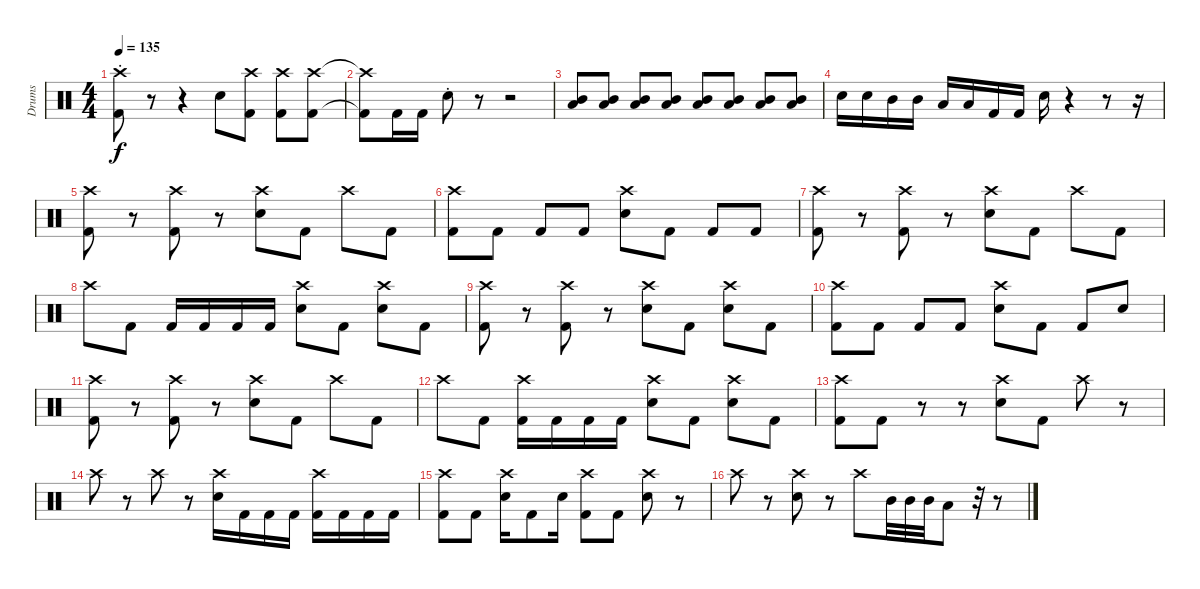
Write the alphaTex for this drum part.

\track ("Drums" "Drums") {instrument percussion}
\staff {score}
\articulation defaults
\ts (4 4)
\tempo 135
\clef neutral
\ks c
("Kick (hit) 2"{st} "Crash high (hit)").8{dy f} r.8 r.4 "Electric Snare (hit)".8 ("Kick (hit) 2" "Crash high (hit)").8 ("Kick (hit) 2" "Crash high (hit)").8 ("Kick (hit) 2" "Crash high (hit)").8 |
("Kick (hit) 2"{t} "Crash high (hit)"{t}).8 "Kick (hit) 2".16 "Kick (hit) 2".16 "Electric Snare (hit)"{st}.8 r.8 r.2 |
("Low Floor Tom (hit)" "Mid Tom (hit)").8 ("Low Floor Tom (hit)" "Mid Tom (hit)").8 ("Low Floor Tom (hit)" "Mid Tom (hit)").8 ("Low Floor Tom (hit)" "Mid Tom (hit)").8 ("Low Floor Tom (hit)" "Mid Tom (hit)").8 ("Low Floor Tom (hit)" "Mid Tom (hit)").8 ("Low Floor Tom (hit)" "Mid Tom (hit)").8 ("Low Floor Tom (hit)" "Mid Tom (hit)").8 |
"Electric Snare (hit)".16 "Electric Snare (hit)".16 "Mid Tom (hit)".16 "Mid Tom (hit)".16 "Low Floor Tom (hit)".16 "Low Floor Tom (hit)".16 "Kick (hit) 2".16 "Kick (hit) 2".16 "Electric Snare (hit)".16 r.4 r.8 r.16 |
("Kick (hit) 2" "Crash high (hit)").8 r.8 ("Kick (hit) 2" "Crash high (hit)").8 r.8 ("Electric Snare (hit)" "Crash high (hit)").8 "Kick (hit) 2".8 "Crash high (hit)".8 "Kick (hit) 2".8 |
("Kick (hit) 2" "Crash high (hit)").8 "Kick (hit) 2".8 "Kick (hit) 2".8 "Kick (hit) 2".8 ("Electric Snare (hit)" "Crash high (hit)").8 "Kick (hit) 2".8 "Kick (hit) 2".8 "Kick (hit) 2".8 |
("Kick (hit) 2" "Crash high (hit)").8 r.8 ("Kick (hit) 2" "Crash high (hit)").8 r.8 ("Electric Snare (hit)" "Crash high (hit)").8 "Kick (hit) 2".8 "Crash high (hit)".8 "Kick (hit) 2".8 |
"Crash high (hit)".8 "Kick (hit) 2".8 "Kick (hit) 2".16 "Kick (hit) 2".16 "Kick (hit) 2".16 "Kick (hit) 2".16 ("Electric Snare (hit)" "Crash high (hit)").8 "Kick (hit) 2".8 ("Electric Snare (hit)" "Crash high (hit)").8 "Kick (hit) 2".8 |
("Kick (hit) 2" "Crash high (hit)").8 r.8 ("Kick (hit) 2" "Crash high (hit)").8 r.8 ("Electric Snare (hit)" "Crash high (hit)").8 "Kick (hit) 2".8 ("Electric Snare (hit)" "Crash high (hit)").8 "Kick (hit) 2".8 |
("Kick (hit) 2" "Crash high (hit)").8 "Kick (hit) 2".8 "Kick (hit) 2".8 "Kick (hit) 2".8 ("Electric Snare (hit)" "Crash high (hit)").8 "Kick (hit) 2".8 "Kick (hit) 2".8 "Electric Snare (hit)".8 |
("Kick (hit) 2" "Crash high (hit)").8 r.8 ("Kick (hit) 2" "Crash high (hit)").8 r.8 ("Electric Snare (hit)" "Crash high (hit)").8 "Kick (hit) 2".8 "Crash high (hit)".8 "Kick (hit) 2".8 |
"Crash high (hit)".8 "Kick (hit) 2".8 ("Kick (hit) 2" "Crash high (hit)").16 "Kick (hit) 2".16 "Kick (hit) 2".16 "Kick (hit) 2".16 ("Electric Snare (hit)" "Crash high (hit)").8 "Kick (hit) 2".8 ("Electric Snare (hit)" "Crash high (hit)").8 "Kick (hit) 2".8 |
("Crash high (hit)" "Kick (hit) 2").8 "Kick (hit) 2".8 r.8 r.8 ("Crash high (hit)" "Electric Snare (hit)").8 "Kick (hit) 2".8 "Crash high (hit)".8 r.8 |
"Crash high (hit)".8 r.8 "Crash high (hit)".8 r.8 ("Crash high (hit)" "Electric Snare (hit)").16 "Kick (hit) 2".16 "Kick (hit) 2".16 "Kick (hit) 2".16 ("Crash high (hit)" "Kick (hit) 2").16 "Kick (hit) 2".16 "Kick (hit) 2".16 "Kick (hit) 2".16 |
("Crash high (hit)" "Kick (hit) 2").8 "Kick (hit) 2".8 ("Crash high (hit)" "Electric Snare (hit)").16 "Kick (hit) 2".8 "Electric Snare (hit)".16 ("Crash high (hit)" "Kick (hit) 2").8 "Kick (hit) 2".8 ("Crash high (hit)" "Electric Snare (hit)").8 r.8 |
"Crash high (hit)".8 r.8 ("Crash high (hit)" "Electric Snare (hit)").8 r.8 "Crash high (hit)".8 "Mid Tom (hit)".32 "Mid Tom (hit)".32 "Mid Tom (hit)".32 "Low Floor Tom (hit)".8 r.32 r.8
